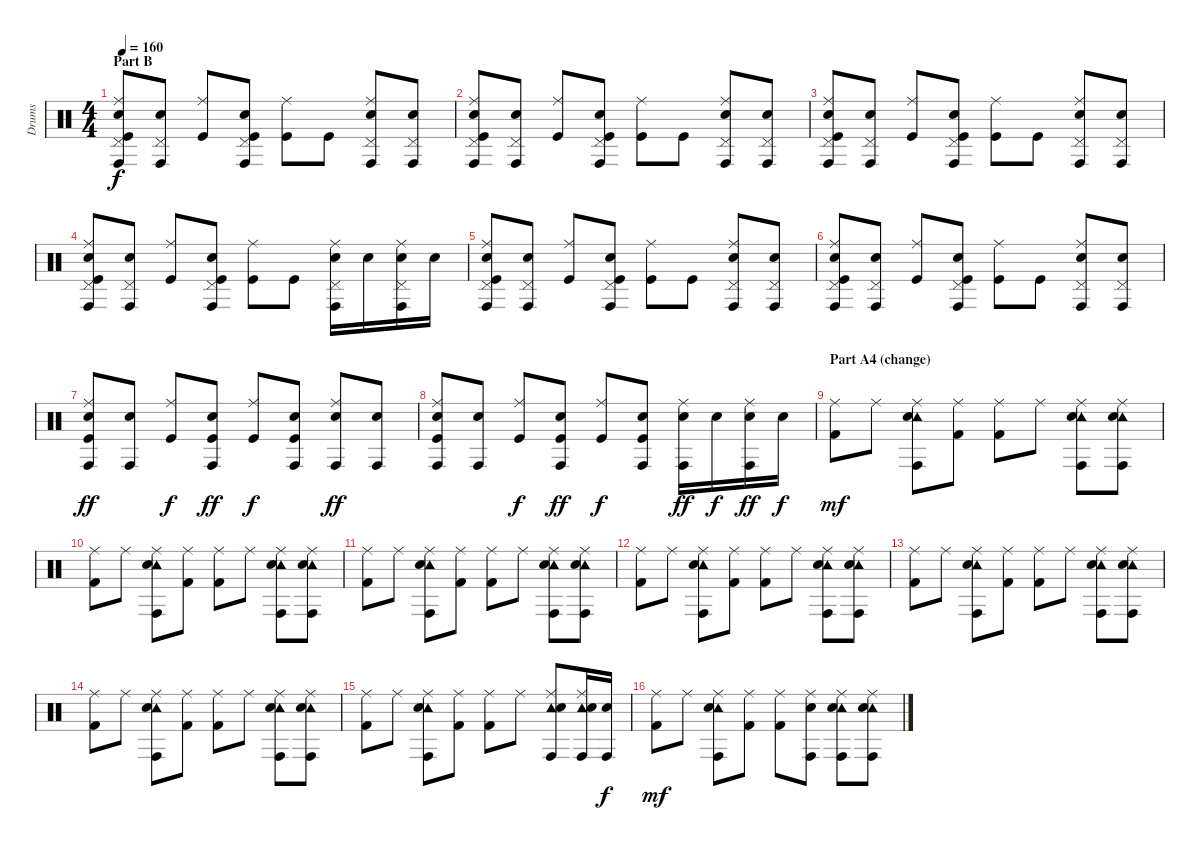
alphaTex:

\track ("Drums" "Drums") {instrument percussion}
\staff {score}
\articulation defaults
\ts (4 4)
\section ("" "Part B")
\tempo 160
\clef neutral
\ks c
("Ride (middle)" "Pedal Hi-Hat (hit)" "Conga high (hit)" "Electric Snare (hit)" "Kick (hit)").8{dy f} ("Pedal Hi-Hat (hit)" "Conga high (hit)" "Electric Snare (hit)").8 ("Ride (middle)" "Kick (hit)").8 ("Pedal Hi-Hat (hit)" "Conga high (hit)" "Electric Snare (hit)" "Kick (hit)").8 ("Ride (middle)" "Kick (hit)").8 "Kick (hit)".8 ("Ride (middle)" "Pedal Hi-Hat (hit)" "Conga high (hit)" "Electric Snare (hit)").8 ("Pedal Hi-Hat (hit)" "Conga high (hit)" "Electric Snare (hit)").8 |
("Ride (middle)" "Pedal Hi-Hat (hit)" "Conga high (hit)" "Electric Snare (hit)" "Kick (hit)").8 ("Pedal Hi-Hat (hit)" "Conga high (hit)" "Electric Snare (hit)").8 ("Ride (middle)" "Kick (hit)").8 ("Pedal Hi-Hat (hit)" "Conga high (hit)" "Electric Snare (hit)" "Kick (hit)").8 ("Ride (middle)" "Kick (hit)").8 "Kick (hit)".8 ("Ride (middle)" "Pedal Hi-Hat (hit)" "Conga high (hit)" "Electric Snare (hit)").8 ("Pedal Hi-Hat (hit)" "Conga high (hit)" "Electric Snare (hit)").8 |
("Ride (middle)" "Pedal Hi-Hat (hit)" "Conga high (hit)" "Electric Snare (hit)" "Kick (hit)").8 ("Pedal Hi-Hat (hit)" "Conga high (hit)" "Electric Snare (hit)").8 ("Ride (middle)" "Kick (hit)").8 ("Pedal Hi-Hat (hit)" "Conga high (hit)" "Electric Snare (hit)" "Kick (hit)").8 ("Ride (middle)" "Kick (hit)").8 "Kick (hit)".8 ("Ride (middle)" "Pedal Hi-Hat (hit)" "Conga high (hit)" "Electric Snare (hit)").8 ("Pedal Hi-Hat (hit)" "Conga high (hit)" "Electric Snare (hit)").8 |
("Ride (middle)" "Pedal Hi-Hat (hit)" "Conga high (hit)" "Electric Snare (hit)" "Kick (hit)").8 ("Pedal Hi-Hat (hit)" "Conga high (hit)" "Electric Snare (hit)").8 ("Ride (middle)" "Kick (hit)").8 ("Pedal Hi-Hat (hit)" "Conga high (hit)" "Electric Snare (hit)" "Kick (hit)").8 ("Ride (middle)" "Kick (hit)").8 "Kick (hit)".8 ("Ride (middle)" "Pedal Hi-Hat (hit)" "Conga high (hit)" "Electric Snare (hit)").16 "Electric Snare (hit)".16 ("Ride (middle)" "Pedal Hi-Hat (hit)" "Conga high (hit)" "Electric Snare (hit)").16 "Electric Snare (hit)".16 |
("Ride (middle)" "Pedal Hi-Hat (hit)" "Conga high (hit)" "Electric Snare (hit)" "Kick (hit)").8 ("Pedal Hi-Hat (hit)" "Conga high (hit)" "Electric Snare (hit)").8 ("Ride (middle)" "Kick (hit)").8 ("Pedal Hi-Hat (hit)" "Conga high (hit)" "Electric Snare (hit)" "Kick (hit)").8 ("Ride (middle)" "Kick (hit)").8 "Kick (hit)".8 ("Ride (middle)" "Pedal Hi-Hat (hit)" "Conga high (hit)" "Electric Snare (hit)").8 ("Pedal Hi-Hat (hit)" "Conga high (hit)" "Electric Snare (hit)").8 |
("Ride (middle)" "Pedal Hi-Hat (hit)" "Conga high (hit)" "Electric Snare (hit)" "Kick (hit)").8 ("Pedal Hi-Hat (hit)" "Conga high (hit)" "Electric Snare (hit)").8 ("Ride (middle)" "Kick (hit)").8 ("Pedal Hi-Hat (hit)" "Conga high (hit)" "Electric Snare (hit)" "Kick (hit)").8 ("Ride (middle)" "Kick (hit)").8 "Kick (hit)".8 ("Ride (middle)" "Pedal Hi-Hat (hit)" "Conga high (hit)" "Electric Snare (hit)").8 ("Pedal Hi-Hat (hit)" "Conga high (hit)" "Electric Snare (hit)").8 |
("Ride (middle)" "Conga high (hit)" "Electric Snare (hit)" "Kick (hit)").8{dy ff} ("Conga high (hit)" "Electric Snare (hit)").8 ("Ride (middle)" "Kick (hit)").8{dy f} ("Conga high (hit)" "Electric Snare (hit)" "Kick (hit)").8{dy ff} ("Ride (middle)" "Kick (hit)").8{dy f} ("Conga high (hit)" "Electric Snare (hit)" "Kick (hit)").8 ("Ride (middle)" "Conga high (hit)" "Electric Snare (hit)").8{dy ff} ("Conga high (hit)" "Electric Snare (hit)").8 |
("Ride (middle)" "Conga high (hit)" "Electric Snare (hit)" "Kick (hit)").8 ("Conga high (hit)" "Electric Snare (hit)").8 ("Ride (middle)" "Kick (hit)").8{dy f} ("Conga high (hit)" "Electric Snare (hit)" "Kick (hit)").8{dy ff} ("Ride (middle)" "Kick (hit)").8{dy f} ("Conga high (hit)" "Electric Snare (hit)" "Kick (hit)").8 ("Ride (middle)" "Conga high (hit)" "Electric Snare (hit)").16{dy ff} "Electric Snare (hit)".16{dy f} ("Ride (middle)" "Conga high (hit)" "Electric Snare (hit)").16{dy ff} "Electric Snare (hit)".16{dy f} |
\section ("" "Part A4 (change)")
("Ride (middle)" "Kick (hit) 2").8{dy mf} "Ride (middle)".8 ("Ride (middle)" "Tambourine (hit)" "Conga high (hit)" "Electric Snare (hit)").8 ("Ride (middle)" "Kick (hit) 2").8 ("Ride (middle)" "Kick (hit) 2").8 "Ride (middle)".8 ("Ride (middle)" "Tambourine (hit)" "Conga high (hit)" "Electric Snare (hit)").8 ("Ride (middle)" "Tambourine (hit)" "Conga high (hit)" "Electric Snare (hit)").8 |
("Ride (middle)" "Kick (hit) 2").8 "Ride (middle)".8 ("Ride (middle)" "Tambourine (hit)" "Conga high (hit)" "Electric Snare (hit)").8 ("Ride (middle)" "Kick (hit) 2").8 ("Ride (middle)" "Kick (hit) 2").8 "Ride (middle)".8 ("Ride (middle)" "Tambourine (hit)" "Conga high (hit)" "Electric Snare (hit)").8 ("Ride (middle)" "Tambourine (hit)" "Conga high (hit)" "Electric Snare (hit)").8 |
("Ride (middle)" "Kick (hit) 2").8 "Ride (middle)".8 ("Ride (middle)" "Tambourine (hit)" "Conga high (hit)" "Electric Snare (hit)").8 ("Ride (middle)" "Kick (hit) 2").8 ("Ride (middle)" "Kick (hit) 2").8 "Ride (middle)".8 ("Ride (middle)" "Tambourine (hit)" "Conga high (hit)" "Electric Snare (hit)").8 ("Ride (middle)" "Tambourine (hit)" "Conga high (hit)" "Electric Snare (hit)").8 |
("Ride (middle)" "Kick (hit) 2").8 "Ride (middle)".8 ("Ride (middle)" "Tambourine (hit)" "Conga high (hit)" "Electric Snare (hit)").8 ("Ride (middle)" "Kick (hit) 2").8 ("Ride (middle)" "Kick (hit) 2").8 "Ride (middle)".8 ("Ride (middle)" "Tambourine (hit)" "Conga high (hit)" "Electric Snare (hit)").8 ("Ride (middle)" "Tambourine (hit)" "Conga high (hit)" "Electric Snare (hit)").8 |
("Ride (middle)" "Kick (hit) 2").8 "Ride (middle)".8 ("Ride (middle)" "Tambourine (hit)" "Conga high (hit)" "Electric Snare (hit)").8 ("Ride (middle)" "Kick (hit) 2").8 ("Ride (middle)" "Kick (hit) 2").8 "Ride (middle)".8 ("Ride (middle)" "Tambourine (hit)" "Conga high (hit)" "Electric Snare (hit)").8 ("Ride (middle)" "Tambourine (hit)" "Conga high (hit)" "Electric Snare (hit)").8 |
("Ride (middle)" "Kick (hit) 2").8 "Ride (middle)".8 ("Ride (middle)" "Tambourine (hit)" "Conga high (hit)" "Electric Snare (hit)").8 ("Ride (middle)" "Kick (hit) 2").8 ("Ride (middle)" "Kick (hit) 2").8 "Ride (middle)".8 ("Ride (middle)" "Tambourine (hit)" "Conga high (hit)" "Electric Snare (hit)").8 ("Ride (middle)" "Tambourine (hit)" "Conga high (hit)" "Electric Snare (hit)").8 |
("Ride (middle)" "Kick (hit) 2").8 "Ride (middle)".8 ("Ride (middle)" "Tambourine (hit)" "Conga high (hit)" "Electric Snare (hit)").8 ("Ride (middle)" "Kick (hit) 2").8 ("Ride (middle)" "Kick (hit) 2").8 "Ride (middle)".8 ("Ride (middle)" "Tambourine (hit)" "Conga high (hit)" "Electric Snare (hit)").8 ("Ride (middle)" "Tambourine (hit)" "Conga high (hit)" "Electric Snare (hit)").16 ("Conga high (hit)" "Electric Snare (hit)").16{dy f} |
("Ride (middle)" "Kick (hit) 2").8{dy mf} "Ride (middle)".8 ("Ride (middle)" "Tambourine (hit)" "Conga high (hit)" "Electric Snare (hit)").8 ("Ride (middle)" "Kick (hit) 2").8 ("Ride (middle)" "Kick (hit) 2").8 ("Ride (middle)" "Conga high (hit)" "Electric Snare (hit)").8 ("Ride (middle)" "Tambourine (hit)" "Conga high (hit)" "Electric Snare (hit)").8 ("Ride (middle)" "Tambourine (hit)" "Conga high (hit)" "Electric Snare (hit)").8
